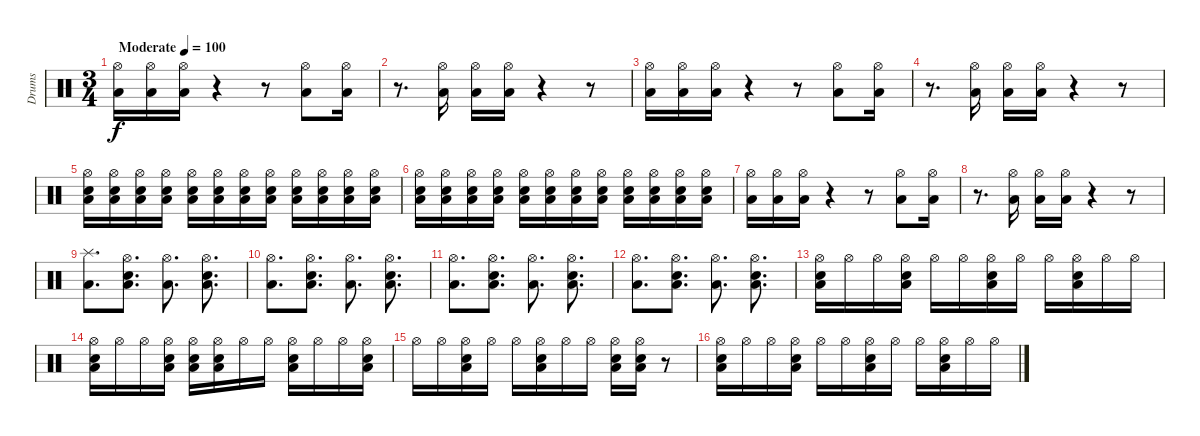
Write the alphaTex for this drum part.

\track ("Drums" "Drums") {instrument percussion}
\staff {score}
\articulation defaults
\ts (3 4)
\tempo (100 "Moderate")
\clef neutral
\ks c
("Hi-Hat (open)" "Low Floor Tom (hit)").16{dy f} ("Hi-Hat (open)" "Low Floor Tom (hit)").16 ("Hi-Hat (open)" "Low Floor Tom (hit)").16 r.4 r.8 ("Hi-Hat (open)" "Low Floor Tom (hit)").8 ("Hi-Hat (open)" "Low Floor Tom (hit)").16 |
r.8{d} ("Hi-Hat (open)" "Low Floor Tom (hit)").16 ("Hi-Hat (open)" "Low Floor Tom (hit)").16 ("Hi-Hat (open)" "Low Floor Tom (hit)").16 r.4 r.8 |
("Hi-Hat (open)" "Low Floor Tom (hit)").16 ("Hi-Hat (open)" "Low Floor Tom (hit)").16 ("Hi-Hat (open)" "Low Floor Tom (hit)").16 r.4 r.8 ("Hi-Hat (open)" "Low Floor Tom (hit)").8 ("Hi-Hat (open)" "Low Floor Tom (hit)").16 |
r.8{d} ("Hi-Hat (open)" "Low Floor Tom (hit)").16 ("Hi-Hat (open)" "Low Floor Tom (hit)").16 ("Hi-Hat (open)" "Low Floor Tom (hit)").16 r.4 r.8 |
("Hi-Hat (open)" "Electric Snare (hit)" "Low Floor Tom (hit)").16 ("Hi-Hat (open)" "Electric Snare (hit)" "Low Floor Tom (hit)").16 ("Hi-Hat (open)" "Electric Snare (hit)" "Low Floor Tom (hit)").16 ("Hi-Hat (open)" "Electric Snare (hit)" "Low Floor Tom (hit)").16 ("Hi-Hat (open)" "Electric Snare (hit)" "Low Floor Tom (hit)").16 ("Hi-Hat (open)" "Electric Snare (hit)" "Low Floor Tom (hit)").16 ("Hi-Hat (open)" "Electric Snare (hit)" "Low Floor Tom (hit)").16 ("Hi-Hat (open)" "Electric Snare (hit)" "Low Floor Tom (hit)").16 ("Hi-Hat (open)" "Electric Snare (hit)" "Low Floor Tom (hit)").16 ("Hi-Hat (open)" "Electric Snare (hit)" "Low Floor Tom (hit)").16 ("Hi-Hat (open)" "Electric Snare (hit)" "Low Floor Tom (hit)").16 ("Hi-Hat (open)" "Electric Snare (hit)" "Low Floor Tom (hit)").16 |
("Hi-Hat (open)" "Electric Snare (hit)" "Low Floor Tom (hit)").16 ("Hi-Hat (open)" "Electric Snare (hit)" "Low Floor Tom (hit)").16 ("Hi-Hat (open)" "Electric Snare (hit)" "Low Floor Tom (hit)").16 ("Hi-Hat (open)" "Electric Snare (hit)" "Low Floor Tom (hit)").16 ("Hi-Hat (open)" "Electric Snare (hit)" "Low Floor Tom (hit)").16 ("Hi-Hat (open)" "Electric Snare (hit)" "Low Floor Tom (hit)").16 ("Hi-Hat (open)" "Electric Snare (hit)" "Low Floor Tom (hit)").16 ("Hi-Hat (open)" "Electric Snare (hit)" "Low Floor Tom (hit)").16 ("Hi-Hat (open)" "Electric Snare (hit)" "Low Floor Tom (hit)").16 ("Hi-Hat (open)" "Electric Snare (hit)" "Low Floor Tom (hit)").16 ("Hi-Hat (open)" "Electric Snare (hit)" "Low Floor Tom (hit)").16 ("Hi-Hat (open)" "Electric Snare (hit)" "Low Floor Tom (hit)").16 |
("Hi-Hat (open)" "Low Floor Tom (hit)").16 ("Hi-Hat (open)" "Low Floor Tom (hit)").16 ("Hi-Hat (open)" "Low Floor Tom (hit)").16 r.4 r.8 ("Hi-Hat (open)" "Low Floor Tom (hit)").8 ("Hi-Hat (open)" "Low Floor Tom (hit)").16 |
r.8{d} ("Hi-Hat (open)" "Low Floor Tom (hit)").16 ("Hi-Hat (open)" "Low Floor Tom (hit)").16 ("Hi-Hat (open)" "Low Floor Tom (hit)").16 r.4 r.8 |
("Splash (hit)" "Low Floor Tom (hit)").8{d} ("Hi-Hat (open)" "Electric Snare (hit)" "Low Floor Tom (hit)").8{d} ("Hi-Hat (open)" "Low Floor Tom (hit)").8{d} ("Hi-Hat (open)" "Electric Snare (hit)" "Low Floor Tom (hit)").8{d} |
("Hi-Hat (open)" "Low Floor Tom (hit)").8{d} ("Hi-Hat (open)" "Electric Snare (hit)" "Low Floor Tom (hit)").8{d} ("Hi-Hat (open)" "Low Floor Tom (hit)").8{d} ("Hi-Hat (open)" "Electric Snare (hit)" "Low Floor Tom (hit)").8{d} |
("Hi-Hat (open)" "Low Floor Tom (hit)").8{d} ("Hi-Hat (open)" "Electric Snare (hit)" "Low Floor Tom (hit)").8{d} ("Hi-Hat (open)" "Low Floor Tom (hit)").8{d} ("Hi-Hat (open)" "Electric Snare (hit)" "Low Floor Tom (hit)").8{d} |
("Hi-Hat (open)" "Low Floor Tom (hit)").8{d} ("Hi-Hat (open)" "Electric Snare (hit)" "Low Floor Tom (hit)").8{d} ("Hi-Hat (open)" "Low Floor Tom (hit)").8{d} ("Hi-Hat (open)" "Electric Snare (hit)" "Low Floor Tom (hit)").8{d} |
("Hi-Hat (open)" "Electric Snare (hit)" "Low Floor Tom (hit)").16 "Hi-Hat (open)".16 "Hi-Hat (open)".16 ("Hi-Hat (open)" "Electric Snare (hit)" "Low Floor Tom (hit)").16 "Hi-Hat (open)".16 "Hi-Hat (open)".16 ("Hi-Hat (open)" "Electric Snare (hit)" "Low Floor Tom (hit)").16 "Hi-Hat (open)".16 "Hi-Hat (open)".16 ("Hi-Hat (open)" "Electric Snare (hit)" "Low Floor Tom (hit)").16 "Hi-Hat (open)".16 "Hi-Hat (open)".16 |
("Hi-Hat (open)" "Electric Snare (hit)" "Low Floor Tom (hit)").16 "Hi-Hat (open)".16 "Hi-Hat (open)".16 ("Hi-Hat (open)" "Electric Snare (hit)" "Low Floor Tom (hit)").16 ("Hi-Hat (open)" "Electric Snare (hit)" "Low Floor Tom (hit)").16 ("Hi-Hat (open)" "Electric Snare (hit)" "Low Floor Tom (hit)").16 "Hi-Hat (open)".16 "Hi-Hat (open)".16 ("Hi-Hat (open)" "Electric Snare (hit)" "Low Floor Tom (hit)").16 "Hi-Hat (open)".16 "Hi-Hat (open)".16 ("Hi-Hat (open)" "Electric Snare (hit)" "Low Floor Tom (hit)").16 |
"Hi-Hat (open)".16 "Hi-Hat (open)".16 ("Hi-Hat (open)" "Electric Snare (hit)" "Low Floor Tom (hit)").16 "Hi-Hat (open)".16 "Hi-Hat (open)".16 ("Hi-Hat (open)" "Electric Snare (hit)" "Low Floor Tom (hit)").16 "Hi-Hat (open)".16 "Hi-Hat (open)".16 ("Hi-Hat (open)" "Electric Snare (hit)" "Low Floor Tom (hit)").16 ("Hi-Hat (open)" "Electric Snare (hit)" "Low Floor Tom (hit)").16 r.8 |
("Hi-Hat (open)" "Electric Snare (hit)" "Low Floor Tom (hit)").16 "Hi-Hat (open)".16 "Hi-Hat (open)".16 ("Hi-Hat (open)" "Electric Snare (hit)" "Low Floor Tom (hit)").16 "Hi-Hat (open)".16 "Hi-Hat (open)".16 ("Hi-Hat (open)" "Electric Snare (hit)" "Low Floor Tom (hit)").16 "Hi-Hat (open)".16 "Hi-Hat (open)".16 ("Hi-Hat (open)" "Electric Snare (hit)" "Low Floor Tom (hit)").16 "Hi-Hat (open)".16 "Hi-Hat (open)".16
